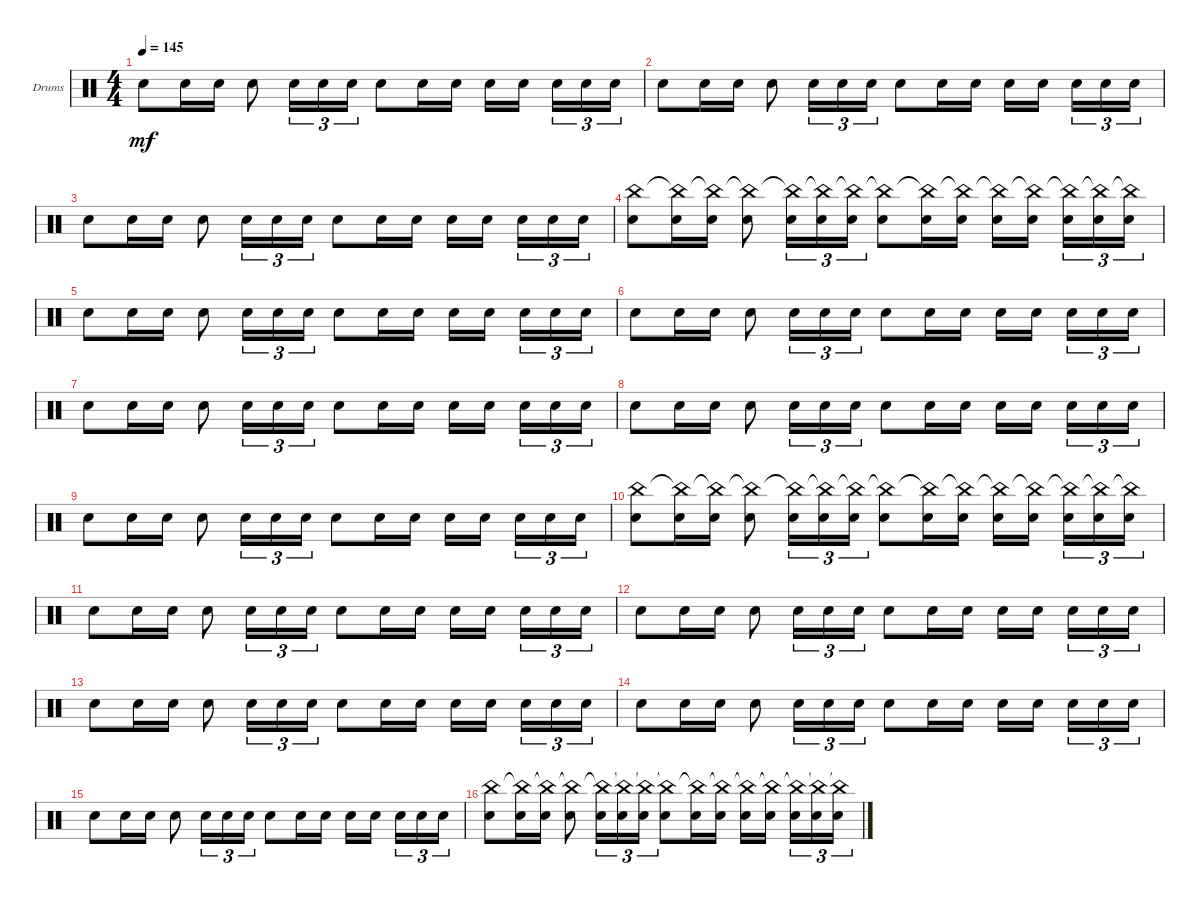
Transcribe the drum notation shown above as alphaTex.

\defaultSystemsLayout 4
\bracketExtendMode groupsimilarinstruments
\firstSystemTrackNameOrientation horizontal
\otherSystemsTrackNameOrientation horizontal
\track ("Drumkit" "Drums") {instrument percussion}
\staff {score}
\articulation defaults
\ts (4 4)
\tempo 145
\clef neutral
\scale
0.333333
\ks c "Snare (hit) 2".8{dy mf} "Snare (hit) 2".16 "Snare (hit) 2".16 "Snare (hit) 2".8 "Snare (hit) 2".16{tu (3 2)} "Snare (hit) 2".16{tu (3 2)} "Snare (hit) 2".16{tu (3 2)} "Snare (hit) 2".8 "Snare (hit) 2".16 "Snare (hit) 2".16 "Snare (hit) 2".16 "Snare (hit) 2".16 "Snare (hit) 2".16{tu (3 2)} "Snare (hit) 2".16{tu (3 2)} "Snare (hit) 2".16{tu (3 2)}
|
\scale
0.333333 "Snare (hit) 2".8 "Snare (hit) 2".16 "Snare (hit) 2".16 "Snare (hit) 2".8 "Snare (hit) 2".16{tu (3 2)} "Snare (hit) 2".16{tu (3 2)} "Snare (hit) 2".16{tu (3 2)} "Snare (hit) 2".8 "Snare (hit) 2".16 "Snare (hit) 2".16 "Snare (hit) 2".16 "Snare (hit) 2".16 "Snare (hit) 2".16{tu (3 2)} "Snare (hit) 2".16{tu (3 2)} "Snare (hit) 2".16{tu (3 2)} |
\scale
0.333333 "Snare (hit) 2".8 "Snare (hit) 2".16 "Snare (hit) 2".16 "Snare (hit) 2".8 "Snare (hit) 2".16{tu (3 2)} "Snare (hit) 2".16{tu (3 2)} "Snare (hit) 2".16{tu (3 2)} "Snare (hit) 2".8 "Snare (hit) 2".16 "Snare (hit) 2".16 "Snare (hit) 2".16 "Snare (hit) 2".16 "Snare (hit) 2".16{tu (3 2)} "Snare (hit) 2".16{tu (3 2)} "Snare (hit) 2".16{tu (3 2)} |
\scale
0.333333 ("Snare (hit) 2" "China (hit)").8 ("Snare (hit) 2" "China (hit)"{t}).16 ("Snare (hit) 2" "China (hit)"{t}).16 ("Snare (hit) 2" "China (hit)"{t}).8 ("Snare (hit) 2" "China (hit)"{t}).16{tu (3 2)} ("Snare (hit) 2" "China (hit)"{t}).16{tu (3 2)} ("Snare (hit) 2" "China (hit)"{t}).16{tu (3 2)} ("Snare (hit) 2" "China (hit)"{t}).8 ("Snare (hit) 2" "China (hit)"{t}).16 ("Snare (hit) 2" "China (hit)"{t}).16 ("Snare (hit) 2" "China (hit)"{t}).16 ("Snare (hit) 2" "China (hit)"{t}).16 ("Snare (hit) 2" "China (hit)"{t}).16{tu (3 2)} ("Snare (hit) 2" "China (hit)"{t}).16{tu (3 2)} ("Snare (hit) 2" "China (hit)"{t}).16{tu (3 2)} |
\scale
0.333333 "Snare (hit) 2".8 "Snare (hit) 2".16 "Snare (hit) 2".16 "Snare (hit) 2".8 "Snare (hit) 2".16{tu (3 2)} "Snare (hit) 2".16{tu (3 2)} "Snare (hit) 2".16{tu (3 2)} "Snare (hit) 2".8 "Snare (hit) 2".16 "Snare (hit) 2".16 "Snare (hit) 2".16 "Snare (hit) 2".16 "Snare (hit) 2".16{tu (3 2)} "Snare (hit) 2".16{tu (3 2)} "Snare (hit) 2".16{tu (3 2)} |
\scale
0.333333 "Snare (hit) 2".8 "Snare (hit) 2".16 "Snare (hit) 2".16 "Snare (hit) 2".8 "Snare (hit) 2".16{tu (3 2)} "Snare (hit) 2".16{tu (3 2)} "Snare (hit) 2".16{tu (3 2)} "Snare (hit) 2".8 "Snare (hit) 2".16 "Snare (hit) 2".16 "Snare (hit) 2".16 "Snare (hit) 2".16 "Snare (hit) 2".16{tu (3 2)} "Snare (hit) 2".16{tu (3 2)} "Snare (hit) 2".16{tu (3 2)} |
\scale
0.333333 "Snare (hit) 2".8 "Snare (hit) 2".16 "Snare (hit) 2".16 "Snare (hit) 2".8 "Snare (hit) 2".16{tu (3 2)} "Snare (hit) 2".16{tu (3 2)} "Snare (hit) 2".16{tu (3 2)} "Snare (hit) 2".8 "Snare (hit) 2".16 "Snare (hit) 2".16 "Snare (hit) 2".16 "Snare (hit) 2".16 "Snare (hit) 2".16{tu (3 2)} "Snare (hit) 2".16{tu (3 2)} "Snare (hit) 2".16{tu (3 2)} |
\scale
0.333333 "Snare (hit) 2".8 "Snare (hit) 2".16 "Snare (hit) 2".16 "Snare (hit) 2".8 "Snare (hit) 2".16{tu (3 2)} "Snare (hit) 2".16{tu (3 2)} "Snare (hit) 2".16{tu (3 2)} "Snare (hit) 2".8 "Snare (hit) 2".16 "Snare (hit) 2".16 "Snare (hit) 2".16 "Snare (hit) 2".16 "Snare (hit) 2".16{tu (3 2)} "Snare (hit) 2".16{tu (3 2)} "Snare (hit) 2".16{tu (3 2)} |
\scale
0.333333 "Snare (hit) 2".8 "Snare (hit) 2".16 "Snare (hit) 2".16 "Snare (hit) 2".8 "Snare (hit) 2".16{tu (3 2)} "Snare (hit) 2".16{tu (3 2)} "Snare (hit) 2".16{tu (3 2)} "Snare (hit) 2".8 "Snare (hit) 2".16 "Snare (hit) 2".16 "Snare (hit) 2".16 "Snare (hit) 2".16 "Snare (hit) 2".16{tu (3 2)} "Snare (hit) 2".16{tu (3 2)} "Snare (hit) 2".16{tu (3 2)} |
\scale
0.333333 ("Snare (hit) 2" "China (hit)").8 ("Snare (hit) 2" "China (hit)"{t}).16 ("Snare (hit) 2" "China (hit)"{t}).16 ("Snare (hit) 2" "China (hit)"{t}).8 ("Snare (hit) 2" "China (hit)"{t}).16{tu (3 2)} ("Snare (hit) 2" "China (hit)"{t}).16{tu (3 2)} ("Snare (hit) 2" "China (hit)"{t}).16{tu (3 2)} ("Snare (hit) 2" "China (hit)"{t}).8 ("Snare (hit) 2" "China (hit)"{t}).16 ("Snare (hit) 2" "China (hit)"{t}).16 ("Snare (hit) 2" "China (hit)"{t}).16 ("Snare (hit) 2" "China (hit)"{t}).16 ("Snare (hit) 2" "China (hit)"{t}).16{tu (3 2)} ("Snare (hit) 2" "China (hit)"{t}).16{tu (3 2)} ("Snare (hit) 2" "China (hit)"{t}).16{tu (3 2)} |
\scale
0.333333 "Snare (hit) 2".8 "Snare (hit) 2".16 "Snare (hit) 2".16 "Snare (hit) 2".8 "Snare (hit) 2".16{tu (3 2)} "Snare (hit) 2".16{tu (3 2)} "Snare (hit) 2".16{tu (3 2)} "Snare (hit) 2".8 "Snare (hit) 2".16 "Snare (hit) 2".16 "Snare (hit) 2".16 "Snare (hit) 2".16 "Snare (hit) 2".16{tu (3 2)} "Snare (hit) 2".16{tu (3 2)} "Snare (hit) 2".16{tu (3 2)} |
\scale
0.333333 "Snare (hit) 2".8 "Snare (hit) 2".16 "Snare (hit) 2".16 "Snare (hit) 2".8 "Snare (hit) 2".16{tu (3 2)} "Snare (hit) 2".16{tu (3 2)} "Snare (hit) 2".16{tu (3 2)} "Snare (hit) 2".8 "Snare (hit) 2".16 "Snare (hit) 2".16 "Snare (hit) 2".16 "Snare (hit) 2".16 "Snare (hit) 2".16{tu (3 2)} "Snare (hit) 2".16{tu (3 2)} "Snare (hit) 2".16{tu (3 2)} |
\scale
0.333333 "Snare (hit) 2".8 "Snare (hit) 2".16 "Snare (hit) 2".16 "Snare (hit) 2".8 "Snare (hit) 2".16{tu (3 2)} "Snare (hit) 2".16{tu (3 2)} "Snare (hit) 2".16{tu (3 2)} "Snare (hit) 2".8 "Snare (hit) 2".16 "Snare (hit) 2".16 "Snare (hit) 2".16 "Snare (hit) 2".16 "Snare (hit) 2".16{tu (3 2)} "Snare (hit) 2".16{tu (3 2)} "Snare (hit) 2".16{tu (3 2)} |
\scale
0.333333 "Snare (hit) 2".8 "Snare (hit) 2".16 "Snare (hit) 2".16 "Snare (hit) 2".8 "Snare (hit) 2".16{tu (3 2)} "Snare (hit) 2".16{tu (3 2)} "Snare (hit) 2".16{tu (3 2)} "Snare (hit) 2".8 "Snare (hit) 2".16 "Snare (hit) 2".16 "Snare (hit) 2".16 "Snare (hit) 2".16 "Snare (hit) 2".16{tu (3 2)} "Snare (hit) 2".16{tu (3 2)} "Snare (hit) 2".16{tu (3 2)} |
\scale
0.333333 "Snare (hit) 2".8 "Snare (hit) 2".16 "Snare (hit) 2".16 "Snare (hit) 2".8 "Snare (hit) 2".16{tu (3 2)} "Snare (hit) 2".16{tu (3 2)} "Snare (hit) 2".16{tu (3 2)} "Snare (hit) 2".8 "Snare (hit) 2".16 "Snare (hit) 2".16 "Snare (hit) 2".16 "Snare (hit) 2".16 "Snare (hit) 2".16{tu (3 2)} "Snare (hit) 2".16{tu (3 2)} "Snare (hit) 2".16{tu (3 2)} |
\scale
0.333333 ("Snare (hit) 2" "China (hit)").8 ("Snare (hit) 2" "China (hit)"{t}).16 ("Snare (hit) 2" "China (hit)"{t}).16 ("Snare (hit) 2" "China (hit)"{t}).8 ("Snare (hit) 2" "China (hit)"{t}).16{tu (3 2)} ("Snare (hit) 2" "China (hit)"{t}).16{tu (3 2)} ("Snare (hit) 2" "China (hit)"{t}).16{tu (3 2)} ("Snare (hit) 2" "China (hit)"{t}).8 ("Snare (hit) 2" "China (hit)"{t}).16 ("Snare (hit) 2" "China (hit)"{t}).16 ("Snare (hit) 2" "China (hit)"{t}).16 ("Snare (hit) 2" "China (hit)"{t}).16 ("Snare (hit) 2" "China (hit)"{t}).16{tu (3 2)} ("Snare (hit) 2" "China (hit)"{t}).16{tu (3 2)} ("Snare (hit) 2" "China (hit)"{t}).16{tu (3 2)}
